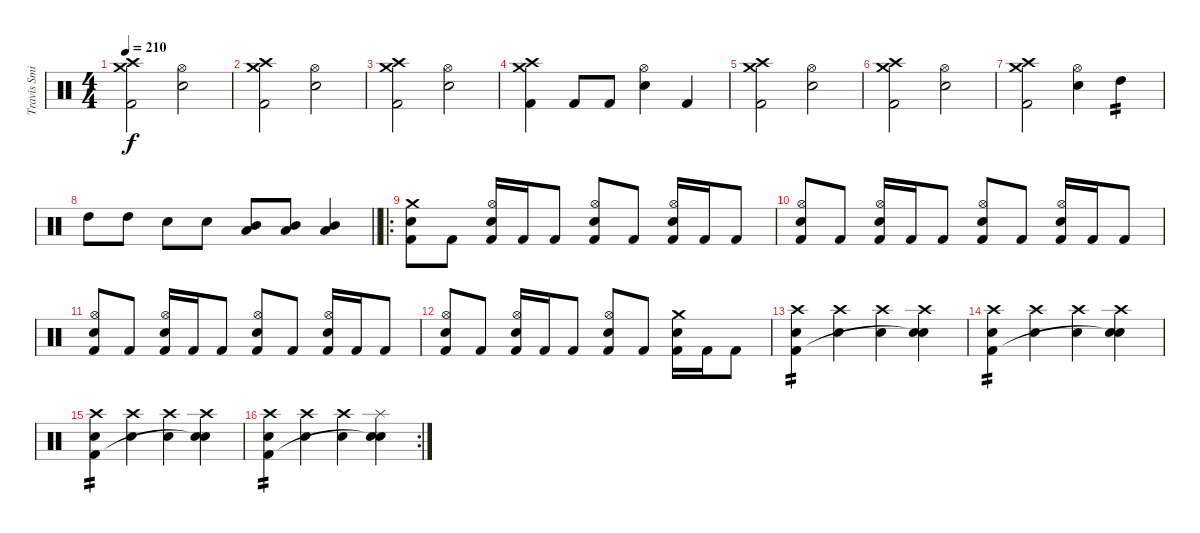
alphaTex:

\track ("Travis Smith" "Travis Smi") {instrument percussion}
\staff {score}
\articulation defaults
\ts (4 4)
\tempo 210
\clef neutral
\ks c
("Crash medium (hit)" "Crash high (hit)" "Kick (hit) 2").2{dy f} ("Hi-Hat (open)" "Electric Snare (hit)").2 |
("Crash medium (hit)" "Crash high (hit)" "Kick (hit) 2").2 ("Hi-Hat (open)" "Electric Snare (hit)").2 |
("Crash medium (hit)" "Crash high (hit)" "Kick (hit) 2").2 ("Hi-Hat (open)" "Electric Snare (hit)").2 |
("Crash medium (hit)" "Crash high (hit)" "Kick (hit) 2").4 "Kick (hit) 2".8 "Kick (hit) 2".8 ("Hi-Hat (open)" "Electric Snare (hit)").4 "Kick (hit) 2".4 |
("Crash medium (hit)" "Crash high (hit)" "Kick (hit) 2").2 ("Hi-Hat (open)" "Electric Snare (hit)").2 |
("Crash medium (hit)" "Crash high (hit)" "Kick (hit) 2").2 ("Hi-Hat (open)" "Electric Snare (hit)").2 |
("Crash medium (hit)" "Crash high (hit)" "Kick (hit) 2").2 ("Hi-Hat (open)" "Electric Snare (hit)").4 "High Tom (hit)".4{tp 2} |
\barLineRight lightlight "High Tom (hit)".8 "High Tom (hit)".8 "Electric Snare (hit)".8 "Electric Snare (hit)".8
("Mid Tom (hit)" "Low Tom (hit)").8 ("Mid Tom (hit)" "Low Tom (hit)").8 ("Mid Tom (hit)" "Low Tom (hit)").4 |
\ro
("Crash medium (hit)" "Electric Snare (hit)" "Kick (hit) 2").8 "Kick (hit) 2".8 ("Hi-Hat (open)" "Electric Snare (hit)" "Kick (hit) 2").16 "Kick (hit) 2".16 "Kick (hit) 2".8 ("Hi-Hat (open)" "Electric Snare (hit)" "Kick (hit) 2").8 "Kick (hit) 2".8 ("Hi-Hat (open)" "Electric Snare (hit)" "Kick (hit) 2").16 "Kick (hit) 2".16 "Kick (hit) 2".8 |
("Hi-Hat (open)" "Electric Snare (hit)" "Kick (hit) 2").8 "Kick (hit) 2".8 ("Hi-Hat (open)" "Electric Snare (hit)" "Kick (hit) 2").16 "Kick (hit) 2".16 "Kick (hit) 2".8 ("Hi-Hat (open)" "Electric Snare (hit)" "Kick (hit) 2").8 "Kick (hit) 2".8 ("Hi-Hat (open)" "Electric Snare (hit)" "Kick (hit) 2").16 "Kick (hit) 2".16 "Kick (hit) 2".8 |
("Hi-Hat (open)" "Electric Snare (hit)" "Kick (hit) 2").8 "Kick (hit) 2".8 ("Hi-Hat (open)" "Electric Snare (hit)" "Kick (hit) 2").16 "Kick (hit) 2".16 "Kick (hit) 2".8 ("Hi-Hat (open)" "Electric Snare (hit)" "Kick (hit) 2").8 "Kick (hit) 2".8 ("Hi-Hat (open)" "Electric Snare (hit)" "Kick (hit) 2").16 "Kick (hit) 2".16 "Kick (hit) 2".8 |
("Hi-Hat (open)" "Electric Snare (hit)" "Kick (hit) 2").8 "Kick (hit) 2".8 ("Hi-Hat (open)" "Electric Snare (hit)" "Kick (hit) 2").16 "Kick (hit) 2".16 "Kick (hit) 2".8 ("Hi-Hat (open)" "Electric Snare (hit)" "Kick (hit) 2").8 "Kick (hit) 2".8 ("Crash medium (hit)" "Electric Snare (hit)" "Kick (hit) 2").16 "Kick (hit) 2".16 "Kick (hit) 2".8 |
("Crash high (hit)" "Electric Snare (hit)" "Kick (hit) 2").4{tp 2} ("Crash high (hit)" "Electric Snare (hit)").4 ("Crash high (hit)" "Electric Snare (hit)").4 ("Crash high (hit)" "Electric Snare (hit)" "Snare (hit)"{t}).4 |
("Crash high (hit)" "Electric Snare (hit)" "Kick (hit) 2").4{tp 2} ("Crash high (hit)" "Electric Snare (hit)").4 ("Crash high (hit)" "Electric Snare (hit)").4 ("Crash high (hit)" "Electric Snare (hit)" "Snare (hit)"{t}).4 |
("Crash high (hit)" "Electric Snare (hit)" "Kick (hit) 2").4{tp 2} ("Crash high (hit)" "Electric Snare (hit)").4 ("Crash high (hit)" "Electric Snare (hit)").4 ("Crash high (hit)" "Electric Snare (hit)" "Snare (hit)"{t}).4 |
\rc 2
("Crash high (hit)" "Electric Snare (hit)" "Kick (hit) 2").4{tp 2} ("Crash high (hit)" "Electric Snare (hit)").4 ("Crash high (hit)" "Electric Snare (hit)").4 ("Splash (hit)" "Electric Snare (hit)" "Snare (hit)"{t}).4
